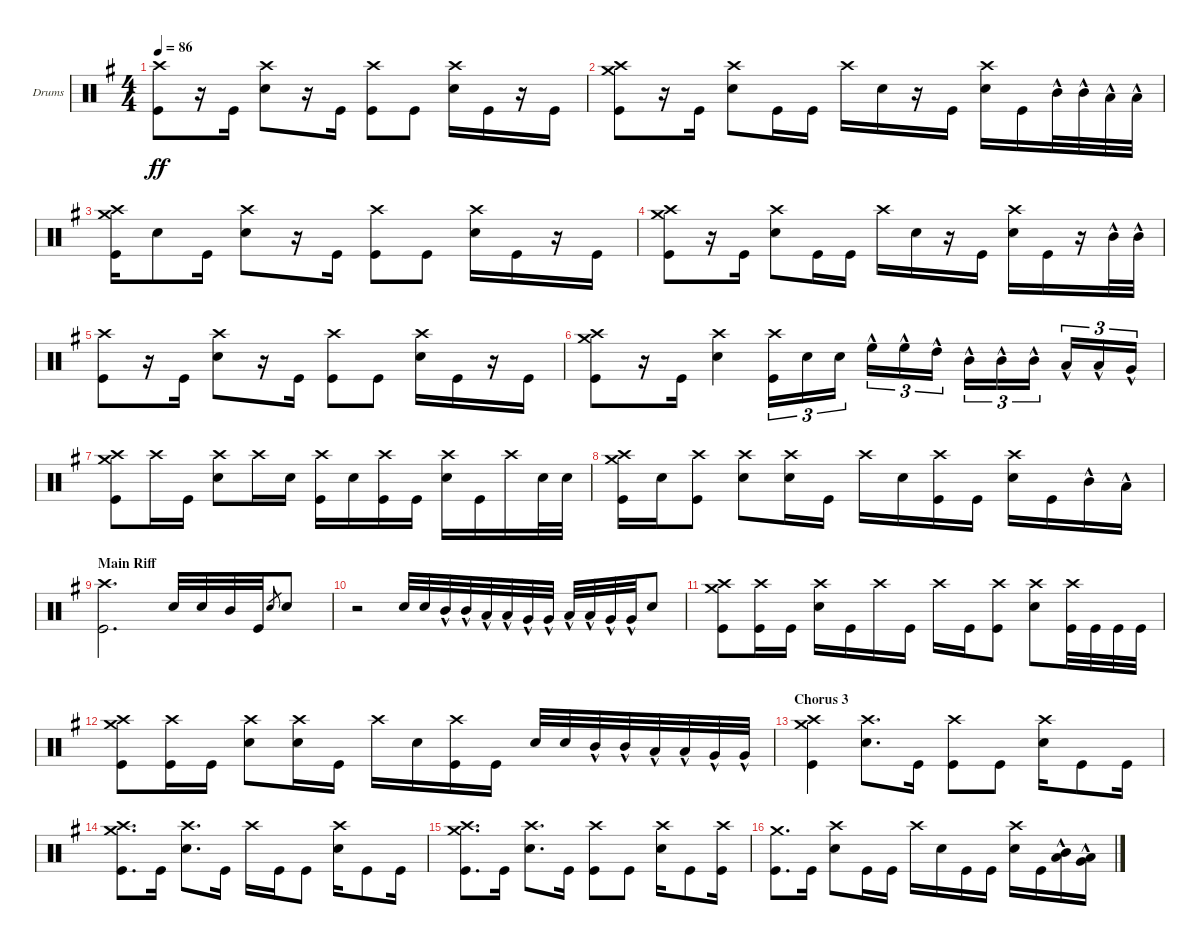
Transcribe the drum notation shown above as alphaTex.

\defaultSystemsLayout 4
\bracketExtendMode groupsimilarinstruments
\firstSystemTrackNameOrientation horizontal
\otherSystemsTrackNameOrientation horizontal
\track ("Drumkit" "Drums") {instrument percussion}
\staff {score}
\articulation defaults
\ts (4 4)
\tempo 86
\clef neutral
\ks eminor
("Crash high (hit)" "Kick (hit)").8{dy ff} r.16 "Kick (hit)".16 ("Snare (hit) 2" "Crash high (hit)").8 r.16 "Kick (hit)".16 ("Kick (hit)" "Crash high (hit)").8 "Kick (hit)".8 ("Snare (hit) 2" "Crash high (hit)").16 "Kick (hit)".16 r.16 "Kick (hit)".16 |
("Crash high (hit)" "Kick (hit)" "Crash medium (hit)").8 r.16 "Kick (hit)".16 ("Snare (hit) 2" "Crash high (hit)").8 "Kick (hit)".16 "Kick (hit)".16 "Crash high (hit)".16 "Snare (hit) 2".16 r.16 "Kick (hit)".16 ("Snare (hit) 2" "Crash high (hit)").16 "Kick (hit)".16 "Mid Tom (hit)"{hac}.32 "Mid Tom (hit)"{hac}.32 "Low Tom (hit)"{hac}.32 "Low Tom (hit)"{hac}.32 |
("Crash high (hit)" "Crash medium (hit)" "Kick (hit)").16 "Snare (hit) 2".8 "Kick (hit)".16 ("Snare (hit) 2" "Crash high (hit)").8 r.16 "Kick (hit)".16 ("Kick (hit)" "Crash high (hit)").8 "Kick (hit)".8 ("Snare (hit) 2" "Crash high (hit)").16 "Kick (hit)".16 r.16 "Kick (hit)".16 |
("Crash high (hit)" "Kick (hit)" "Crash medium (hit)").8 r.16 "Kick (hit)".16 ("Snare (hit) 2" "Crash high (hit)").8 "Kick (hit)".16 "Kick (hit)".16 "Crash high (hit)".16 "Snare (hit) 2".16 r.16 "Kick (hit)".16 ("Snare (hit) 2" "Crash high (hit)").16 "Kick (hit)".16 r.16 "Mid Tom (hit)"{hac}.32 "Mid Tom (hit)"{hac}.32 |
("Crash high (hit)" "Kick (hit)").8 r.16 "Kick (hit)".16 ("Snare (hit) 2" "Crash high (hit)").8 r.16 "Kick (hit)".16 ("Kick (hit)" "Crash high (hit)").8 "Kick (hit)".8 ("Snare (hit) 2" "Crash high (hit)").16 "Kick (hit)".16 r.16 "Kick (hit)".16 |
("Crash high (hit)" "Kick (hit)" "Crash medium (hit)").8 r.16 "Kick (hit)".16 ("Snare (hit) 2" "Crash high (hit)").4 ("Kick (hit)" "Crash high (hit)").16{tu (3 2)} "Snare (hit) 2".16{tu (3 2)} "Snare (hit) 2".16{tu (3 2)} "High Floor Tom (hit)"{hac}.16{tu (3 2)} "High Floor Tom (hit)"{hac}.16{tu (3 2)} "High Tom (hit)"{hac}.16{tu (3 2)} "Mid Tom (hit)"{hac}.16{tu (3 2)} "Mid Tom (hit)"{hac}.16{tu (3 2)} "Mid Tom (hit)"{hac}.16{tu (3 2)} "Low Tom (hit)"{hac}.16{tu (3 2)} "Low Tom (hit)"{hac}.16{tu (3 2)} "Very Low Tom (hit)"{hac}.16{tu (3 2)} |
("Crash high (hit)" "Kick (hit)" "Crash medium (hit)").8 "Crash high (hit)".16 "Kick (hit)".16 ("Snare (hit) 2" "Crash high (hit)").8 "Crash high (hit)".16 "Snare (hit) 2".16 ("Crash high (hit)" "Kick (hit)").16 "Snare (hit) 2".16 ("Kick (hit)" "Crash high (hit)").16 "Kick (hit)".16 ("Snare (hit) 2" "Crash high (hit)").16 "Kick (hit)".16 "Crash high (hit)".16 "Snare (hit) 2".32 "Snare (hit) 2".32 |
("Crash high (hit)" "Crash medium (hit)" "Kick (hit)").16 "Snare (hit) 2".16 ("Kick (hit)" "Crash high (hit)").8 ("Snare (hit) 2" "Crash high (hit)").8 ("Snare (hit) 2" "Crash high (hit)").16 "Kick (hit)".16 "Crash high (hit)".16 "Snare (hit) 2".16 ("Kick (hit)" "Crash high (hit)").16 "Kick (hit)".16 ("Snare (hit) 2" "Crash high (hit)").16 "Kick (hit)".16 "Mid Tom (hit)"{hac}.16 "Low Tom (hit)"{hac}.16 |
\section ("" "Main Riff")
("Kick (hit)" "Crash high (hit)").2{d} "Snare (hit) 2".32 "Snare (hit) 2".32 "Mid Tom (hit)".32 "Kick (hit)".32 "Snare (hit) 2".8{gr} "Snare (hit) 2".8 |
r.2 "Snare (hit) 2".32 "Snare (hit) 2".32 "Mid Tom (hit)"{hac}.32 "Mid Tom (hit)"{hac}.32 "Low Tom (hit)"{hac}.32 "Low Tom (hit)"{hac}.32 "Very Low Tom (hit)"{hac}.32 "Very Low Tom (hit)"{hac}.32 "Low Tom (hit)"{hac}.32 "Low Tom (hit)"{hac}.32 "Very Low Tom (hit)"{hac}.32 "Very Low Tom (hit)"{hac}.32 "Snare (hit) 2".8 |
("Crash high (hit)" "Kick (hit)" "Crash medium (hit)").8 ("Kick (hit)" "Crash high (hit)").16 "Kick (hit)".16 ("Snare (hit) 2" "Crash high (hit)").16 "Kick (hit)".16 "Crash high (hit)".16 "Kick (hit)".16 "Crash high (hit)".16 "Kick (hit)".16 ("Kick (hit)" "Crash high (hit)").8 ("Snare (hit) 2" "Crash high (hit)").8 ("Crash high (hit)" "Kick (hit)").32 "Kick (hit)".32 "Kick (hit)".32 "Kick (hit)".32 |
("Crash high (hit)" "Kick (hit)" "Crash medium (hit)").8 ("Kick (hit)" "Crash high (hit)").16 "Kick (hit)".16 ("Snare (hit) 2" "Crash high (hit)").8 ("Crash high (hit)" "Snare (hit) 2").16 "Kick (hit)".16 "Crash high (hit)".16 "Snare (hit) 2".16 ("Crash high (hit)" "Kick (hit)").16 "Kick (hit)".16 "Snare (hit) 2".32 "Snare (hit) 2".32 "Mid Tom (hit)"{hac}.32 "Mid Tom (hit)"{hac}.32 "Low Tom (hit)"{hac}.32 "Low Tom (hit)"{hac}.32 "Very Low Tom (hit)"{hac}.32 "Very Low Tom (hit)"{hac}.32 |
\section ("" "Chorus 3")
("Crash high (hit)" "Crash medium (hit)" "Kick (hit)").4 ("Crash high (hit)" "Snare (hit) 2").8{d} "Kick (hit)".16 ("Kick (hit)" "Crash high (hit)").8 "Kick (hit)".8 ("Snare (hit) 2" "Crash high (hit)").16 "Kick (hit)".8 "Kick (hit)".16 |
("Crash high (hit)" "Crash medium (hit)" "Kick (hit)").8{d} "Kick (hit)".16 ("Crash high (hit)" "Snare (hit) 2").8{d} "Kick (hit)".16 "Crash high (hit)".16 "Kick (hit)".16 "Kick (hit)".8 ("Snare (hit) 2" "Crash high (hit)").16 "Kick (hit)".8 "Kick (hit)".16 |
("Crash high (hit)" "Crash medium (hit)" "Kick (hit)").8{d} "Kick (hit)".16 ("Crash high (hit)" "Snare (hit) 2").8{d} "Kick (hit)".16 ("Kick (hit)" "Crash high (hit)").8 "Kick (hit)".8 ("Snare (hit) 2" "Crash high (hit)").16 "Kick (hit)".8 ("Kick (hit)" "Crash high (hit)").16 |
("Crash medium (hit)" "Kick (hit)").8{d} "Kick (hit)".16 ("Crash high (hit)" "Snare (hit) 2").8 "Kick (hit)".16 "Kick (hit)".16 "Crash high (hit)".16 "Snare (hit) 2".16 "Kick (hit)".16 "Kick (hit)".16 ("Snare (hit) 2" "Crash high (hit)").16 "Kick (hit)".16 ("Mid Tom (hit)"{hac} "Low Tom (hit)").16 ("Low Tom (hit)"{hac} "Very Low Tom (hit)").16
